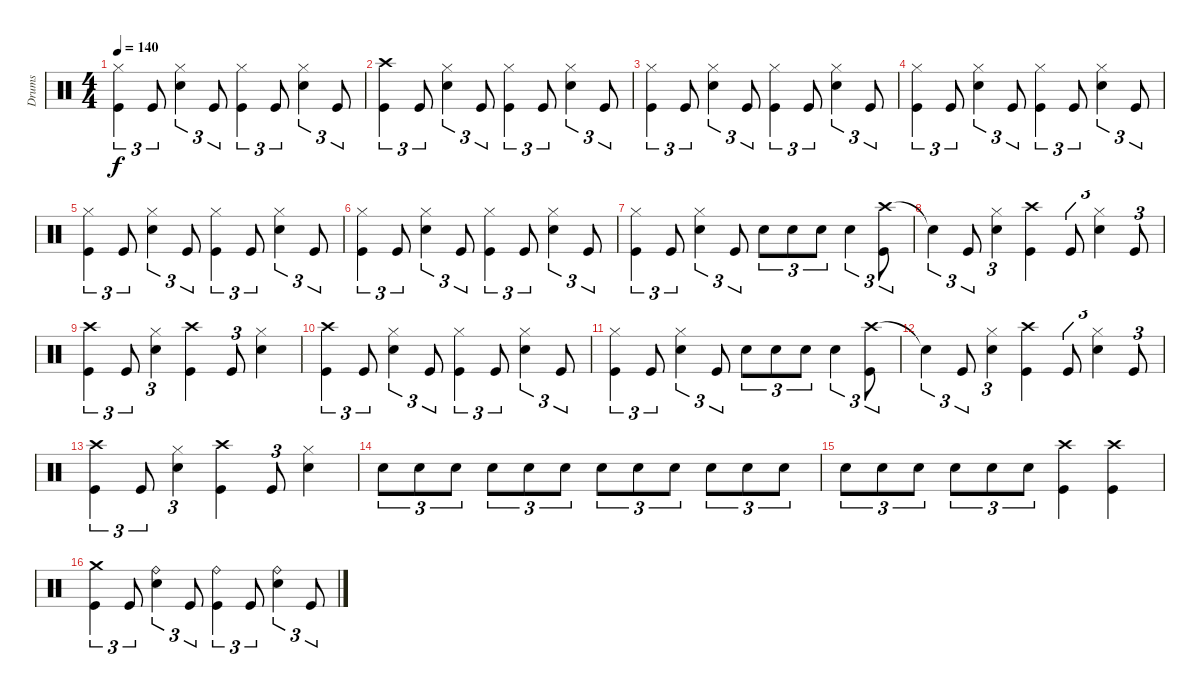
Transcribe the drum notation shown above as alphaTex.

\track ("Drums" "Drums") {instrument percussion}
\staff {score}
\articulation defaults
\ts (4 4)
\tempo 140
\clef neutral
\ks c
("Hi-Hat (closed)" "Kick (hit)").4{tu (3 2) dy f} "Kick (hit)".8{tu (3 2)} ("Hi-Hat (closed)" "Snare (hit) 2").4{tu (3 2)} "Kick (hit)".8{tu (3 2)} ("Hi-Hat (closed)" "Kick (hit)").4{tu (3 2)} "Kick (hit)".8{tu (3 2)} ("Hi-Hat (closed)" "Snare (hit) 2").4{tu (3 2)} "Kick (hit)".8{tu (3 2)} |
("Crash high (hit)" "Kick (hit)").4{tu (3 2)} "Kick (hit)".8{tu (3 2)} ("Hi-Hat (closed)" "Snare (hit) 2").4{tu (3 2)} "Kick (hit)".8{tu (3 2)} ("Hi-Hat (closed)" "Kick (hit)").4{tu (3 2)} "Kick (hit)".8{tu (3 2)} ("Hi-Hat (closed)" "Snare (hit) 2").4{tu (3 2)} "Kick (hit)".8{tu (3 2)} |
("Hi-Hat (closed)" "Kick (hit)").4{tu (3 2)} "Kick (hit)".8{tu (3 2)} ("Hi-Hat (closed)" "Snare (hit) 2").4{tu (3 2)} "Kick (hit)".8{tu (3 2)} ("Hi-Hat (closed)" "Kick (hit)").4{tu (3 2)} "Kick (hit)".8{tu (3 2)} ("Hi-Hat (closed)" "Snare (hit) 2").4{tu (3 2)} "Kick (hit)".8{tu (3 2)} |
("Hi-Hat (closed)" "Kick (hit)").4{tu (3 2)} "Kick (hit)".8{tu (3 2)} ("Hi-Hat (closed)" "Snare (hit) 2").4{tu (3 2)} "Kick (hit)".8{tu (3 2)} ("Hi-Hat (closed)" "Kick (hit)").4{tu (3 2)} "Kick (hit)".8{tu (3 2)} ("Hi-Hat (closed)" "Snare (hit) 2").4{tu (3 2)} "Kick (hit)".8{tu (3 2)} |
("Hi-Hat (closed)" "Kick (hit)").4{tu (3 2)} "Kick (hit)".8{tu (3 2)} ("Hi-Hat (closed)" "Snare (hit) 2").4{tu (3 2)} "Kick (hit)".8{tu (3 2)} ("Hi-Hat (closed)" "Kick (hit)").4{tu (3 2)} "Kick (hit)".8{tu (3 2)} ("Hi-Hat (closed)" "Snare (hit) 2").4{tu (3 2)} "Kick (hit)".8{tu (3 2)} |
("Hi-Hat (closed)" "Kick (hit)").4{tu (3 2)} "Kick (hit)".8{tu (3 2)} ("Hi-Hat (closed)" "Snare (hit) 2").4{tu (3 2)} "Kick (hit)".8{tu (3 2)} ("Hi-Hat (closed)" "Kick (hit)").4{tu (3 2)} "Kick (hit)".8{tu (3 2)} ("Hi-Hat (closed)" "Snare (hit) 2").4{tu (3 2)} "Kick (hit)".8{tu (3 2)} |
("Hi-Hat (closed)" "Kick (hit)").4{tu (3 2)} "Kick (hit)".8{tu (3 2)} ("Hi-Hat (closed)" "Snare (hit) 2").4{tu (3 2)} "Kick (hit)".8{tu (3 2)} "Snare (hit) 2".8{tu (3 2)} "Snare (hit) 2".8{tu (3 2)} "Snare (hit) 2".8{tu (3 2)} "Snare (hit) 2".4{tu (3 2)} ("Crash high (hit)" "Kick (hit)").8{tu (3 2)} |
"Snare (hit)"{t}.4{tu (3 2)} "Kick (hit)".8{tu (3 2)} ("Hi-Hat (closed)" "Snare (hit) 2").4{tu (3 2)} ("Crash high (hit)" "Kick (hit)").4 "Kick (hit)".8{tu (3 2)} ("Hi-Hat (closed)" "Snare (hit) 2").4{tu (3 2)} "Kick (hit)".8{tu (3 2)} |
("Crash high (hit)" "Kick (hit)").4{tu (3 2)} "Kick (hit)".8{tu (3 2)} ("Hi-Hat (closed)" "Snare (hit) 2").4{tu (3 2)} ("Crash high (hit)" "Kick (hit)").4 "Kick (hit)".8{tu (3 2)} ("Hi-Hat (closed)" "Snare (hit) 2").4 |
("Crash high (hit)" "Kick (hit)").4{tu (3 2)} "Kick (hit)".8{tu (3 2)} ("Hi-Hat (closed)" "Snare (hit) 2").4{tu (3 2)} "Kick (hit)".8{tu (3 2)} ("Hi-Hat (closed)" "Kick (hit)").4{tu (3 2)} "Kick (hit)".8{tu (3 2)} ("Hi-Hat (closed)" "Snare (hit) 2").4{tu (3 2)} "Kick (hit)".8{tu (3 2)} |
("Hi-Hat (closed)" "Kick (hit)").4{tu (3 2)} "Kick (hit)".8{tu (3 2)} ("Hi-Hat (closed)" "Snare (hit) 2").4{tu (3 2)} "Kick (hit)".8{tu (3 2)} "Snare (hit) 2".8{tu (3 2)} "Snare (hit) 2".8{tu (3 2)} "Snare (hit) 2".8{tu (3 2)} "Snare (hit) 2".4{tu (3 2)} ("Crash high (hit)" "Kick (hit)").8{tu (3 2)} |
"Snare (hit)"{t}.4{tu (3 2)} "Kick (hit)".8{tu (3 2)} ("Hi-Hat (closed)" "Snare (hit) 2").4{tu (3 2)} ("Crash high (hit)" "Kick (hit)").4 "Kick (hit)".8{tu (3 2)} ("Hi-Hat (closed)" "Snare (hit) 2").4{tu (3 2)} "Kick (hit)".8{tu (3 2)} |
("Crash high (hit)" "Kick (hit)").4{tu (3 2)} "Kick (hit)".8{tu (3 2)} ("Hi-Hat (closed)" "Snare (hit) 2").4{tu (3 2)} ("Crash high (hit)" "Kick (hit)").4 "Kick (hit)".8{tu (3 2)} ("Hi-Hat (closed)" "Snare (hit) 2").4 |
"Snare (hit) 2".8{tu (3 2)} "Snare (hit) 2".8{tu (3 2)} "Snare (hit) 2".8{tu (3 2)} "Snare (hit) 2".8{tu (3 2)} "Snare (hit) 2".8{tu (3 2)} "Snare (hit) 2".8{tu (3 2)} "Snare (hit) 2".8{tu (3 2)} "Snare (hit) 2".8{tu (3 2)} "Snare (hit) 2".8{tu (3 2)} "Snare (hit) 2".8{tu (3 2)} "Snare (hit) 2".8{tu (3 2)} "Snare (hit) 2".8{tu (3 2)} |
"Snare (hit) 2".8{tu (3 2)} "Snare (hit) 2".8{tu (3 2)} "Snare (hit) 2".8{tu (3 2)} "Snare (hit) 2".8{tu (3 2)} "Snare (hit) 2".8{tu (3 2)} "Snare (hit) 2".8{tu (3 2)} ("Crash high (hit)" "Kick (hit)").4 ("Crash high (hit)" "Kick (hit)").4 |
("Crash medium (hit)" "Kick (hit)").4{tu (3 2)} "Kick (hit)".8{tu (3 2)} ("Ride (bell)" "Snare (hit) 2").4{tu (3 2)} "Kick (hit)".8{tu (3 2)} ("Ride (bell)" "Kick (hit)").4{tu (3 2)} "Kick (hit)".8{tu (3 2)} ("Ride (bell)" "Snare (hit) 2").4{tu (3 2)} "Kick (hit)".8{tu (3 2)}
